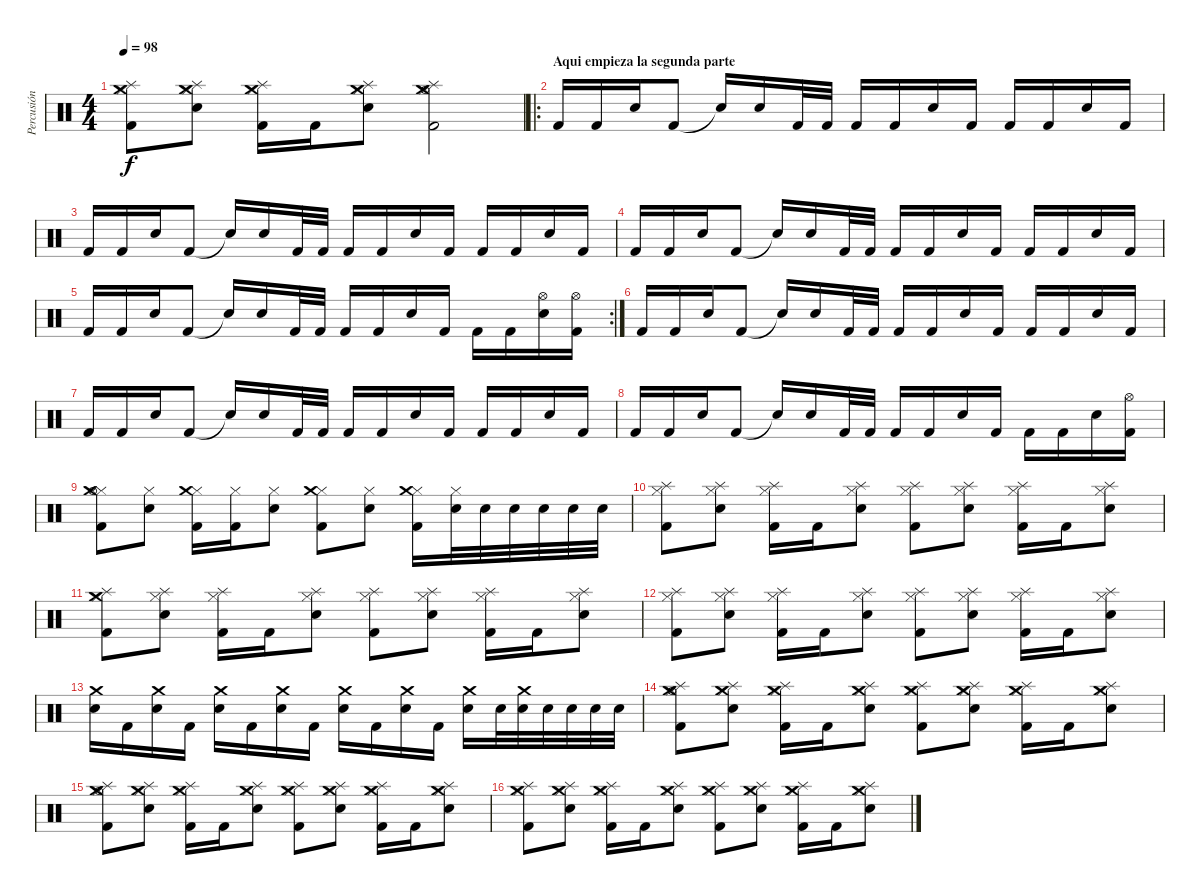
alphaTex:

\track ("Percusión" "Percusión") {instrument percussion}
\staff {score}
\articulation defaults
\ts (4 4)
\tempo 98
\clef neutral
\ks c
("Hi-Hat (closed)" "Crash medium (hit)" "Splash (hit)" "Kick (hit) 2").8{dy f} ("Hi-Hat (closed)" "Crash medium (hit)" "Splash (hit)" "Snare (hit) 2").8 ("Hi-Hat (closed)" "Crash medium (hit)" "Splash (hit)" "Kick (hit) 2").16 "Kick (hit) 2".16 ("Hi-Hat (closed)" "Crash medium (hit)" "Splash (hit)" "Snare (hit) 2").8 ("Hi-Hat (closed)" "Crash medium (hit)" "Hi-Hat (open)" "Splash (hit)" "Kick (hit) 2").2 |
\ro
\section ("" "Aqui empieza la segunda parte")
"Kick (hit) 2".16 "Kick (hit) 2".16 "Snare (hit) 2".16 "Kick (hit) 2".8 "Snare (hit) 2"{t}.16 "Snare (hit) 2".16 "Kick (hit) 2".32 "Kick (hit) 2".32 "Kick (hit) 2".16 "Kick (hit) 2".16 "Snare (hit) 2".16 "Kick (hit) 2".16 "Kick (hit) 2".16 "Kick (hit) 2".16 "Snare (hit) 2".16 "Kick (hit) 2".16 |
"Kick (hit) 2".16 "Kick (hit) 2".16 "Snare (hit) 2".16 "Kick (hit) 2".8 "Snare (hit) 2"{t}.16 "Snare (hit) 2".16 "Kick (hit) 2".32 "Kick (hit) 2".32 "Kick (hit) 2".16 "Kick (hit) 2".16 "Snare (hit) 2".16 "Kick (hit) 2".16 "Kick (hit) 2".16 "Kick (hit) 2".16 "Snare (hit) 2".16 "Kick (hit) 2".16 |
"Kick (hit) 2".16 "Kick (hit) 2".16 "Snare (hit) 2".16 "Kick (hit) 2".8 "Snare (hit) 2"{t}.16 "Snare (hit) 2".16 "Kick (hit) 2".32 "Kick (hit) 2".32 "Kick (hit) 2".16 "Kick (hit) 2".16 "Snare (hit) 2".16 "Kick (hit) 2".16 "Kick (hit) 2".16 "Kick (hit) 2".16 "Snare (hit) 2".16 "Kick (hit) 2".16 |
\rc 2 "Kick (hit) 2".16 "Kick (hit) 2".16 "Snare (hit) 2".16 "Kick (hit) 2".8 "Snare (hit) 2"{t}.16 "Snare (hit) 2".16 "Kick (hit) 2".32 "Kick (hit) 2".32 "Kick (hit) 2".16 "Kick (hit) 2".16 "Snare (hit) 2".16 "Kick (hit) 2".16 "Kick (hit) 2".16 "Kick (hit) 2".16
("Hi-Hat (open)" "Snare (hit) 2").16 ("Hi-Hat (open)" "Kick (hit) 2").16 |
"Kick (hit) 2".16 "Kick (hit) 2".16 "Snare (hit) 2".16 "Kick (hit) 2".8 "Snare (hit) 2"{t}.16 "Snare (hit) 2".16 "Kick (hit) 2".32 "Kick (hit) 2".32 "Kick (hit) 2".16 "Kick (hit) 2".16 "Snare (hit) 2".16 "Kick (hit) 2".16 "Kick (hit) 2".16 "Kick (hit) 2".16 "Snare (hit) 2".16 "Kick (hit) 2".16 |
"Kick (hit) 2".16 "Kick (hit) 2".16 "Snare (hit) 2".16 "Kick (hit) 2".8 "Snare (hit) 2"{t}.16 "Snare (hit) 2".16 "Kick (hit) 2".32 "Kick (hit) 2".32 "Kick (hit) 2".16 "Kick (hit) 2".16 "Snare (hit) 2".16 "Kick (hit) 2".16 "Kick (hit) 2".16 "Kick (hit) 2".16 "Snare (hit) 2".16 "Kick (hit) 2".16 |
"Kick (hit) 2".16 "Kick (hit) 2".16 "Snare (hit) 2".16 "Kick (hit) 2".8 "Snare (hit) 2"{t}.16 "Snare (hit) 2".16 "Kick (hit) 2".32 "Kick (hit) 2".32 "Kick (hit) 2".16 "Kick (hit) 2".16 "Snare (hit) 2".16 "Kick (hit) 2".16 "Kick (hit) 2".16 "Kick (hit) 2".16 "Snare (hit) 2".16 ("Hi-Hat (open)" "Kick (hit) 2").16 |
("Hi-Hat (closed)" "Crash medium (hit)" "Hi-Hat (open)" "Kick (hit) 2").8 ("Hi-Hat (closed)" "Snare (hit) 2").8 ("Hi-Hat (closed)" "Crash medium (hit)" "Kick (hit) 2").16 ("Hi-Hat (closed)" "Kick (hit) 2").16 ("Hi-Hat (closed)" "Snare (hit) 2").8 ("Hi-Hat (closed)" "Crash medium (hit)" "Kick (hit) 2").8 ("Hi-Hat (closed)" "Snare (hit) 2").8 ("Hi-Hat (closed)" "Crash medium (hit)" "Kick (hit) 2").16 ("Hi-Hat (closed)" "Snare (hit) 2").32 "Snare (hit) 2".32 "Snare (hit) 2".32 "Snare (hit) 2".32 "Snare (hit) 2".32 "Snare (hit) 2".32 |
("Hi-Hat (closed)" "Splash (hit)" "Kick (hit) 2").8 ("Hi-Hat (closed)" "Splash (hit)" "Snare (hit) 2").8 ("Hi-Hat (closed)" "Splash (hit)" "Kick (hit) 2").16 "Kick (hit) 2".16 ("Hi-Hat (closed)" "Splash (hit)" "Snare (hit) 2").8 ("Hi-Hat (closed)" "Splash (hit)" "Kick (hit) 2").8 ("Hi-Hat (closed)" "Splash (hit)" "Snare (hit) 2").8 ("Hi-Hat (closed)" "Splash (hit)" "Kick (hit) 2").16 "Kick (hit) 2".16 ("Hi-Hat (closed)" "Splash (hit)" "Snare (hit) 2").8 |
("Hi-Hat (closed)" "Splash (hit)" "Crash medium (hit)" "Kick (hit) 2").8 ("Hi-Hat (closed)" "Splash (hit)" "Snare (hit) 2").8 ("Hi-Hat (closed)" "Splash (hit)" "Kick (hit) 2").16 "Kick (hit) 2".16 ("Hi-Hat (closed)" "Splash (hit)" "Snare (hit) 2").8 ("Hi-Hat (closed)" "Splash (hit)" "Kick (hit) 2").8 ("Hi-Hat (closed)" "Splash (hit)" "Snare (hit) 2").8 ("Hi-Hat (closed)" "Splash (hit)" "Kick (hit) 2").16 "Kick (hit) 2".16 ("Hi-Hat (closed)" "Splash (hit)" "Snare (hit) 2").8 |
("Hi-Hat (closed)" "Splash (hit)" "Kick (hit) 2").8 ("Hi-Hat (closed)" "Splash (hit)" "Snare (hit) 2").8 ("Hi-Hat (closed)" "Splash (hit)" "Kick (hit) 2").16 "Kick (hit) 2".16 ("Hi-Hat (closed)" "Splash (hit)" "Snare (hit) 2").8 ("Hi-Hat (closed)" "Splash (hit)" "Kick (hit) 2").8 ("Hi-Hat (closed)" "Splash (hit)" "Snare (hit) 2").8 ("Hi-Hat (closed)" "Splash (hit)" "Kick (hit) 2").16 "Kick (hit) 2".16 ("Hi-Hat (closed)" "Splash (hit)" "Snare (hit) 2").8 |
("Crash medium (hit)" "Snare (hit) 2").16 "Kick (hit) 2".16 ("Crash medium (hit)" "Snare (hit) 2").16 "Kick (hit) 2".16 ("Crash medium (hit)" "Snare (hit) 2").16 "Kick (hit) 2".16 ("Crash medium (hit)" "Snare (hit) 2").16 "Kick (hit) 2".16 ("Crash medium (hit)" "Snare (hit) 2").16 "Kick (hit) 2".16 ("Crash medium (hit)" "Snare (hit) 2").16 "Kick (hit) 2".16 ("Crash medium (hit)" "Snare (hit) 2").16 "Snare (hit) 2".32 ("Crash medium (hit)" "Snare (hit) 2").32 "Snare (hit) 2".32 "Snare (hit) 2".32 "Snare (hit) 2".32 "Snare (hit) 2".32 |
("Hi-Hat (closed)" "Crash medium (hit)" "Hi-Hat (open)" "Splash (hit)" "Kick (hit) 2").8 ("Hi-Hat (closed)" "Crash medium (hit)" "Splash (hit)" "Snare (hit) 2").8 ("Hi-Hat (closed)" "Crash medium (hit)" "Splash (hit)" "Kick (hit) 2").16 "Kick (hit) 2".16 ("Hi-Hat (closed)" "Crash medium (hit)" "Splash (hit)" "Snare (hit) 2").8 ("Hi-Hat (closed)" "Crash medium (hit)" "Splash (hit)" "Kick (hit) 2").8 ("Hi-Hat (closed)" "Crash medium (hit)" "Splash (hit)" "Snare (hit) 2").8 ("Hi-Hat (closed)" "Crash medium (hit)" "Splash (hit)" "Kick (hit) 2").16 "Kick (hit) 2".16 ("Hi-Hat (closed)" "Crash medium (hit)" "Splash (hit)" "Snare (hit) 2").8 |
("Hi-Hat (closed)" "Crash medium (hit)" "Hi-Hat (open)" "Splash (hit)" "Kick (hit) 2").8 ("Hi-Hat (closed)" "Crash medium (hit)" "Splash (hit)" "Snare (hit) 2").8 ("Hi-Hat (closed)" "Crash medium (hit)" "Splash (hit)" "Kick (hit) 2").16 "Kick (hit) 2".16 ("Hi-Hat (closed)" "Crash medium (hit)" "Splash (hit)" "Snare (hit) 2").8 ("Hi-Hat (closed)" "Crash medium (hit)" "Splash (hit)" "Kick (hit) 2").8 ("Hi-Hat (closed)" "Crash medium (hit)" "Splash (hit)" "Snare (hit) 2").8 ("Hi-Hat (closed)" "Crash medium (hit)" "Splash (hit)" "Kick (hit) 2").16 "Kick (hit) 2".16 ("Hi-Hat (closed)" "Crash medium (hit)" "Splash (hit)" "Snare (hit) 2").8 |
("Hi-Hat (closed)" "Crash medium (hit)" "Splash (hit)" "Kick (hit) 2").8 ("Hi-Hat (closed)" "Crash medium (hit)" "Splash (hit)" "Snare (hit) 2").8 ("Hi-Hat (closed)" "Crash medium (hit)" "Splash (hit)" "Kick (hit) 2").16 "Kick (hit) 2".16 ("Hi-Hat (closed)" "Crash medium (hit)" "Splash (hit)" "Snare (hit) 2").8 ("Hi-Hat (closed)" "Crash medium (hit)" "Splash (hit)" "Kick (hit) 2").8 ("Hi-Hat (closed)" "Crash medium (hit)" "Splash (hit)" "Snare (hit) 2").8 ("Hi-Hat (closed)" "Crash medium (hit)" "Splash (hit)" "Kick (hit) 2").16 "Kick (hit) 2".16 ("Hi-Hat (closed)" "Crash medium (hit)" "Splash (hit)" "Snare (hit) 2").8
